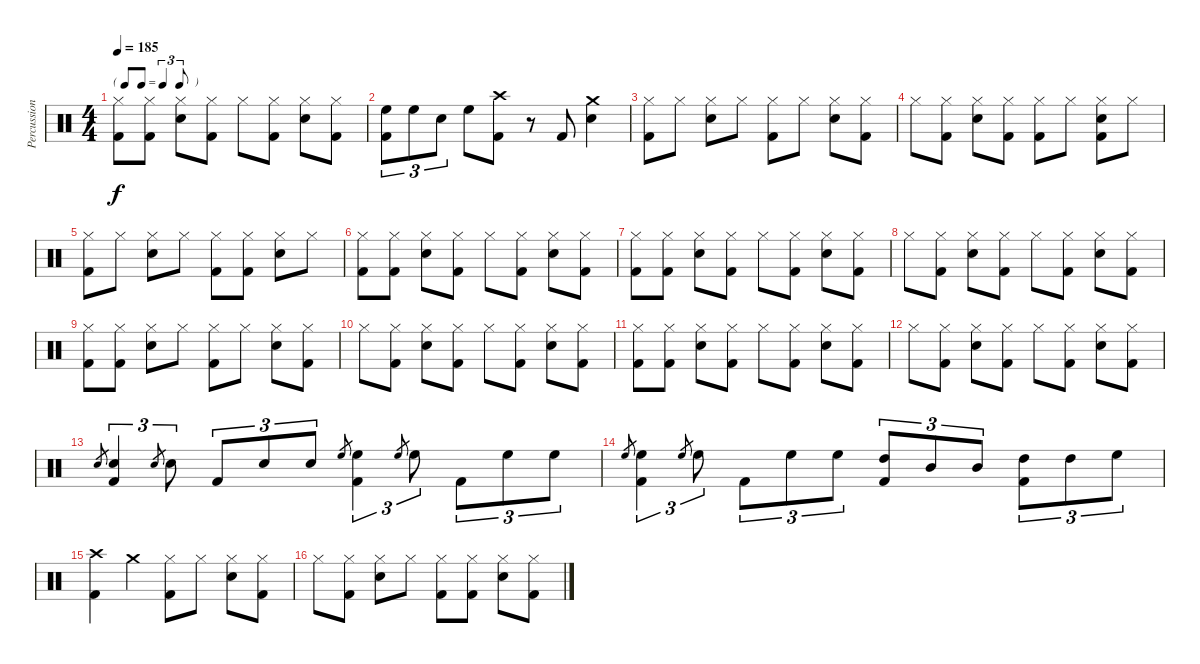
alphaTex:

\track ("Percussion" "Percussion") {instrument percussion}
\staff {score}
\articulation defaults
\ts (4 4)
\tf triplet8th
\tempo 185
\clef neutral
\ks c
("Kick (hit) 2" "Hi-Hat (closed)").8{dy f} ("Kick (hit) 2" "Hi-Hat (closed)").8 ("Snare (hit) 2" "Hi-Hat (closed)").8 ("Kick (hit) 2" "Hi-Hat (closed)").8 "Hi-Hat (closed)".8 ("Kick (hit) 2" "Hi-Hat (closed)").8 ("Snare (hit) 2" "Hi-Hat (closed)").8 ("Kick (hit) 2" "Hi-Hat (closed)").8 |
("Kick (hit) 2" "High Floor Tom (hit)").8{tu (3 2)} "High Floor Tom (hit)".8{tu (3 2)} "Snare (hit) 2".8{tu (3 2)} "High Floor Tom (hit)".8 ("Kick (hit) 2" "Crash high (hit)").8 r.8 "Kick (hit) 2".8 ("Snare (hit) 2" "Crash medium (hit)").4 |
("Kick (hit) 2" "Hi-Hat (closed)").8 "Hi-Hat (closed)".8 ("Snare (hit) 2" "Hi-Hat (closed)").8 "Hi-Hat (closed)".8 ("Kick (hit) 2" "Hi-Hat (closed)").8 "Hi-Hat (closed)".8 ("Snare (hit) 2" "Hi-Hat (closed)").8 ("Kick (hit) 2" "Hi-Hat (closed)").8 |
"Hi-Hat (closed)".8 ("Kick (hit) 2" "Hi-Hat (closed)").8 ("Snare (hit) 2" "Hi-Hat (closed)").8 ("Kick (hit) 2" "Hi-Hat (closed)").8 ("Kick (hit) 2" "Hi-Hat (closed)").8 "Hi-Hat (closed)".8 ("Kick (hit) 2" "Snare (hit) 2" "Hi-Hat (closed)").8 "Hi-Hat (closed)".8 |
("Kick (hit) 2" "Hi-Hat (closed)").8 "Hi-Hat (closed)".8 ("Snare (hit) 2" "Hi-Hat (closed)").8 "Hi-Hat (closed)".8 ("Kick (hit) 2" "Hi-Hat (closed)").8 ("Kick (hit) 2" "Hi-Hat (closed)").8 ("Snare (hit) 2" "Hi-Hat (closed)").8 "Hi-Hat (closed)".8 |
("Kick (hit) 2" "Hi-Hat (closed)").8 ("Kick (hit) 2" "Hi-Hat (closed)").8 ("Snare (hit) 2" "Hi-Hat (closed)").8 ("Kick (hit) 2" "Hi-Hat (closed)").8 "Hi-Hat (closed)".8 ("Kick (hit) 2" "Hi-Hat (closed)").8 ("Snare (hit) 2" "Hi-Hat (closed)").8 ("Kick (hit) 2" "Hi-Hat (closed)").8 |
("Kick (hit) 2" "Hi-Hat (closed)").8 ("Kick (hit) 2" "Hi-Hat (closed)").8 ("Snare (hit) 2" "Hi-Hat (closed)").8 ("Kick (hit) 2" "Hi-Hat (closed)").8 "Hi-Hat (closed)".8 ("Kick (hit) 2" "Hi-Hat (closed)").8 ("Snare (hit) 2" "Hi-Hat (closed)").8 ("Kick (hit) 2" "Hi-Hat (closed)").8 |
"Hi-Hat (closed)".8 ("Kick (hit) 2" "Hi-Hat (closed)").8 ("Snare (hit) 2" "Hi-Hat (closed)").8 ("Kick (hit) 2" "Hi-Hat (closed)").8 "Hi-Hat (closed)".8 ("Kick (hit) 2" "Hi-Hat (closed)").8 ("Snare (hit) 2" "Hi-Hat (closed)").8 ("Kick (hit) 2" "Hi-Hat (closed)").8 |
("Kick (hit) 2" "Hi-Hat (closed)").8 ("Kick (hit) 2" "Hi-Hat (closed)").8 ("Snare (hit) 2" "Hi-Hat (closed)").8 "Hi-Hat (closed)".8 ("Kick (hit) 2" "Hi-Hat (closed)").8 "Hi-Hat (closed)".8 ("Snare (hit) 2" "Hi-Hat (closed)").8 ("Kick (hit) 2" "Hi-Hat (closed)").8 |
"Hi-Hat (closed)".8 ("Kick (hit) 2" "Hi-Hat (closed)").8 ("Snare (hit) 2" "Hi-Hat (closed)").8 ("Kick (hit) 2" "Hi-Hat (closed)").8 "Hi-Hat (closed)".8 ("Kick (hit) 2" "Hi-Hat (closed)").8 ("Snare (hit) 2" "Hi-Hat (closed)").8 ("Kick (hit) 2" "Hi-Hat (closed)").8 |
("Kick (hit) 2" "Hi-Hat (closed)").8 ("Kick (hit) 2" "Hi-Hat (closed)").8 ("Snare (hit) 2" "Hi-Hat (closed)").8 ("Kick (hit) 2" "Hi-Hat (closed)").8 "Hi-Hat (closed)".8 ("Kick (hit) 2" "Hi-Hat (closed)").8 ("Snare (hit) 2" "Hi-Hat (closed)").8 ("Kick (hit) 2" "Hi-Hat (closed)").8 |
"Hi-Hat (closed)".8 ("Kick (hit) 2" "Hi-Hat (closed)").8 ("Snare (hit) 2" "Hi-Hat (closed)").8 ("Kick (hit) 2" "Hi-Hat (closed)").8 "Hi-Hat (closed)".8 ("Kick (hit) 2" "Hi-Hat (closed)").8 ("Snare (hit) 2" "Hi-Hat (closed)").8 ("Kick (hit) 2" "Hi-Hat (closed)").8 |
"Snare (hit) 2".8{gr} ("Kick (hit) 2" "Snare (hit) 2").4{tu (3 2)} "Snare (hit) 2".8{gr} "Snare (hit) 2".8{tu (3 2)} "Kick (hit) 2".8{tu (3 2)} "Snare (hit) 2".8{tu (3 2)} "Snare (hit) 2".8{tu (3 2)} "High Floor Tom (hit)".8{gr} ("Kick (hit) 2" "High Floor Tom (hit)").4{tu (3 2)} "High Floor Tom (hit)".8{gr} "High Floor Tom (hit)".8{tu (3 2)} "Kick (hit) 2".8{tu (3 2)} "High Floor Tom (hit)".8{tu (3 2)} "High Floor Tom (hit)".8{tu (3 2)} |
"High Floor Tom (hit)".8{gr} ("Kick (hit) 2" "High Floor Tom (hit)").4{tu (3 2)} "High Floor Tom (hit)".8{gr} "High Floor Tom (hit)".8{tu (3 2)} "Kick (hit) 2".8{tu (3 2)} "High Floor Tom (hit)".8{tu (3 2)} "High Floor Tom (hit)".8{tu (3 2)} ("Kick (hit) 2" "High Tom (hit)").8{tu (3 2)} "Mid Tom (hit)".8{tu (3 2)} "Mid Tom (hit)".8{tu (3 2)} ("Kick (hit) 2" "High Tom (hit)").8{tu (3 2)} "High Tom (hit)".8{tu (3 2)} "High Floor Tom (hit)".8{tu (3 2)} |
("Kick (hit) 2" "Crash high (hit)").4 "Crash medium (hit)".4 ("Kick (hit) 2" "Hi-Hat (closed)").8 "Hi-Hat (closed)".8 ("Snare (hit) 2" "Hi-Hat (closed)").8 ("Kick (hit) 2" "Hi-Hat (closed)").8 |
"Hi-Hat (closed)".8 ("Kick (hit) 2" "Hi-Hat (closed)").8 ("Snare (hit) 2" "Hi-Hat (closed)").8 "Hi-Hat (closed)".8 ("Kick (hit) 2" "Hi-Hat (closed)").8 ("Kick (hit) 2" "Hi-Hat (closed)").8 ("Snare (hit) 2" "Hi-Hat (closed)").8 ("Kick (hit) 2" "Hi-Hat (closed)").8
